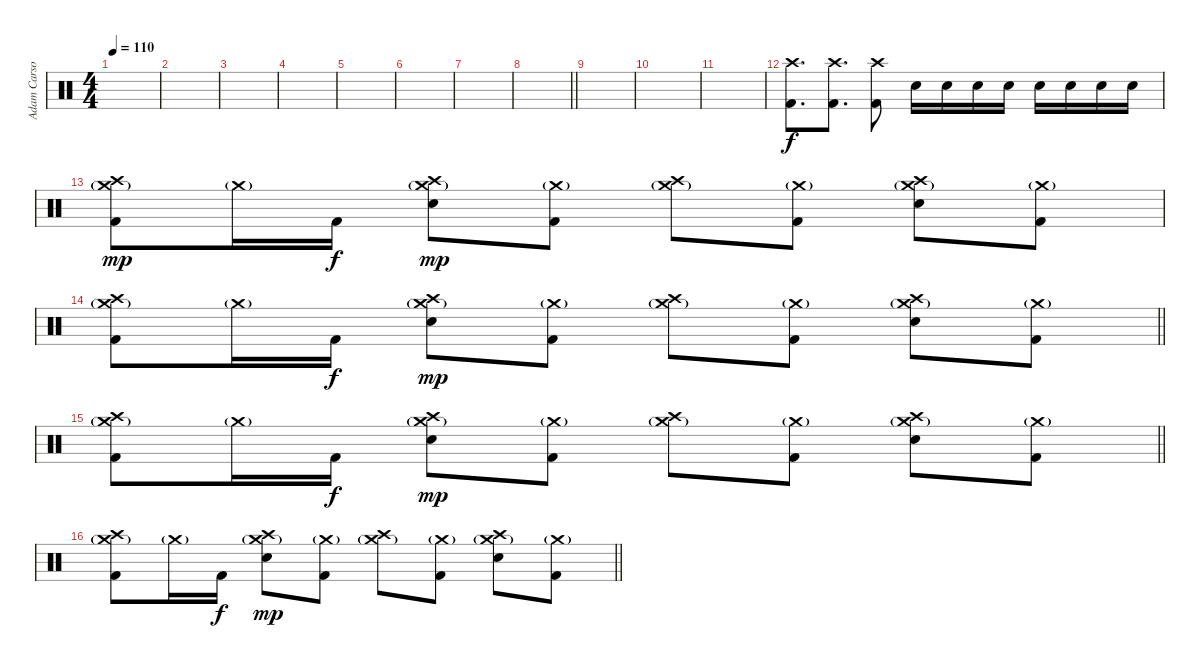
\track ("Adam Carson" "Adam Carso") {instrument percussion}
\staff {score}
\articulation defaults
\ts (4 4)
\tempo 110
\clef neutral
\ks c
|
|
|
|
|
|
|
\barLineRight lightlight
|
|
|
|
("Crash high (hit)" "Kick (hit) 2").8{d} ("Crash high (hit)" "Kick (hit) 2").8{d} ("Crash high (hit)" "Kick (hit) 2").8 "Snare (hit) 2".16 "Snare (hit) 2".16 "Snare (hit) 2".16 "Snare (hit) 2".16 "Snare (hit) 2".16 "Snare (hit) 2".16 "Snare (hit) 2".16 "Snare (hit) 2".16 |
("Crash high (hit)" "Crash medium (hit)"{g} "Kick (hit) 2").8{dy mp} "Crash medium (hit)"{g}.16 "Kick (hit) 2".16{dy f} ("Crash high (hit)" "Crash medium (hit)"{g} "Snare (hit) 2").8{dy mp} ("Crash medium (hit)"{g} "Kick (hit) 2").8 ("Crash high (hit)" "Crash medium (hit)"{g}).8 ("Crash medium (hit)"{g} "Kick (hit) 2").8 ("Crash high (hit)" "Crash medium (hit)"{g} "Snare (hit) 2").8 ("Crash medium (hit)"{g} "Kick (hit) 2").8 |
\barLineRight lightlight
("Crash high (hit)" "Crash medium (hit)"{g} "Kick (hit) 2").8 "Crash medium (hit)"{g}.16 "Kick (hit) 2".16{dy f} ("Crash high (hit)" "Crash medium (hit)"{g} "Snare (hit) 2").8{dy mp} ("Crash medium (hit)"{g} "Kick (hit) 2").8 ("Crash high (hit)" "Crash medium (hit)"{g}).8 ("Crash medium (hit)"{g} "Kick (hit) 2").8 ("Crash high (hit)" "Crash medium (hit)"{g} "Snare (hit) 2").8 ("Crash medium (hit)"{g} "Kick (hit) 2").8 |
\barLineRight lightlight
("Crash high (hit)" "Crash medium (hit)"{g} "Kick (hit) 2").8 "Crash medium (hit)"{g}.16 "Kick (hit) 2".16{dy f} ("Crash high (hit)" "Crash medium (hit)"{g} "Snare (hit) 2").8{dy mp} ("Crash medium (hit)"{g} "Kick (hit) 2").8 ("Crash high (hit)" "Crash medium (hit)"{g}).8 ("Crash medium (hit)"{g} "Kick (hit) 2").8 ("Crash high (hit)" "Crash medium (hit)"{g} "Snare (hit) 2").8 ("Crash medium (hit)"{g} "Kick (hit) 2").8 |
\barLineRight lightlight
("Crash high (hit)" "Crash medium (hit)"{g} "Kick (hit) 2").8 "Crash medium (hit)"{g}.16 "Kick (hit) 2".16{dy f} ("Crash high (hit)" "Crash medium (hit)"{g} "Snare (hit) 2").8{dy mp} ("Crash medium (hit)"{g} "Kick (hit) 2").8 ("Crash high (hit)" "Crash medium (hit)"{g}).8 ("Crash medium (hit)"{g} "Kick (hit) 2").8 ("Crash high (hit)" "Crash medium (hit)"{g} "Snare (hit) 2").8 ("Crash medium (hit)"{g} "Kick (hit) 2").8
